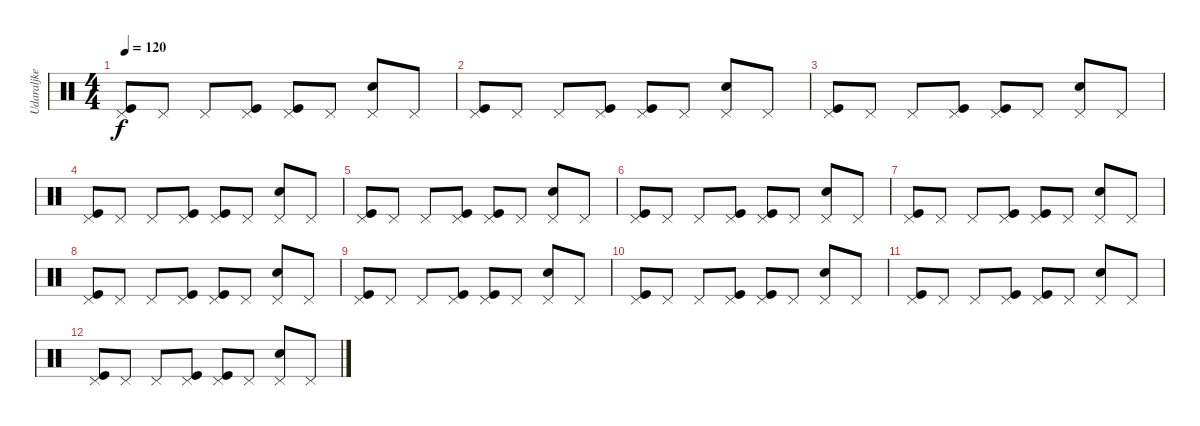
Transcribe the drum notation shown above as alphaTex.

\track ("Udaraljke" "Udaraljke") {instrument percussion}
\staff {score}
\articulation defaults
\ts (4 4)
\tempo 120
\clef neutral
\ks c
("Pedal Hi-Hat (hit)" "Kick (hit)").8{dy f} "Pedal Hi-Hat (hit)".8 "Pedal Hi-Hat (hit)".8 ("Pedal Hi-Hat (hit)" "Kick (hit)").8 ("Pedal Hi-Hat (hit)" "Kick (hit)").8 "Pedal Hi-Hat (hit)".8 ("Pedal Hi-Hat (hit)" "Snare (hit) 2").8 "Pedal Hi-Hat (hit)".8 |
("Pedal Hi-Hat (hit)" "Kick (hit)").8 "Pedal Hi-Hat (hit)".8 "Pedal Hi-Hat (hit)".8 ("Pedal Hi-Hat (hit)" "Kick (hit)").8 ("Pedal Hi-Hat (hit)" "Kick (hit)").8 "Pedal Hi-Hat (hit)".8 ("Pedal Hi-Hat (hit)" "Snare (hit) 2").8 "Pedal Hi-Hat (hit)".8 |
("Pedal Hi-Hat (hit)" "Kick (hit)").8 "Pedal Hi-Hat (hit)".8 "Pedal Hi-Hat (hit)".8 ("Pedal Hi-Hat (hit)" "Kick (hit)").8 ("Pedal Hi-Hat (hit)" "Kick (hit)").8 "Pedal Hi-Hat (hit)".8 ("Pedal Hi-Hat (hit)" "Snare (hit) 2").8 "Pedal Hi-Hat (hit)".8 |
("Pedal Hi-Hat (hit)" "Kick (hit)").8 "Pedal Hi-Hat (hit)".8 "Pedal Hi-Hat (hit)".8 ("Pedal Hi-Hat (hit)" "Kick (hit)").8 ("Pedal Hi-Hat (hit)" "Kick (hit)").8 "Pedal Hi-Hat (hit)".8 ("Pedal Hi-Hat (hit)" "Snare (hit) 2").8 "Pedal Hi-Hat (hit)".8 |
("Pedal Hi-Hat (hit)" "Kick (hit)").8 "Pedal Hi-Hat (hit)".8 "Pedal Hi-Hat (hit)".8 ("Pedal Hi-Hat (hit)" "Kick (hit)").8 ("Pedal Hi-Hat (hit)" "Kick (hit)").8 "Pedal Hi-Hat (hit)".8 ("Pedal Hi-Hat (hit)" "Snare (hit) 2").8 "Pedal Hi-Hat (hit)".8 |
("Pedal Hi-Hat (hit)" "Kick (hit)").8 "Pedal Hi-Hat (hit)".8 "Pedal Hi-Hat (hit)".8 ("Pedal Hi-Hat (hit)" "Kick (hit)").8 ("Pedal Hi-Hat (hit)" "Kick (hit)").8 "Pedal Hi-Hat (hit)".8 ("Pedal Hi-Hat (hit)" "Snare (hit) 2").8 "Pedal Hi-Hat (hit)".8 |
("Pedal Hi-Hat (hit)" "Kick (hit)").8 "Pedal Hi-Hat (hit)".8 "Pedal Hi-Hat (hit)".8 ("Pedal Hi-Hat (hit)" "Kick (hit)").8 ("Pedal Hi-Hat (hit)" "Kick (hit)").8 "Pedal Hi-Hat (hit)".8 ("Pedal Hi-Hat (hit)" "Snare (hit) 2").8 "Pedal Hi-Hat (hit)".8 |
("Pedal Hi-Hat (hit)" "Kick (hit)").8 "Pedal Hi-Hat (hit)".8 "Pedal Hi-Hat (hit)".8 ("Pedal Hi-Hat (hit)" "Kick (hit)").8 ("Pedal Hi-Hat (hit)" "Kick (hit)").8 "Pedal Hi-Hat (hit)".8 ("Pedal Hi-Hat (hit)" "Snare (hit) 2").8 "Pedal Hi-Hat (hit)".8 |
("Pedal Hi-Hat (hit)" "Kick (hit)").8 "Pedal Hi-Hat (hit)".8 "Pedal Hi-Hat (hit)".8 ("Pedal Hi-Hat (hit)" "Kick (hit)").8 ("Pedal Hi-Hat (hit)" "Kick (hit)").8 "Pedal Hi-Hat (hit)".8 ("Pedal Hi-Hat (hit)" "Snare (hit) 2").8 "Pedal Hi-Hat (hit)".8 |
("Pedal Hi-Hat (hit)" "Kick (hit)").8 "Pedal Hi-Hat (hit)".8 "Pedal Hi-Hat (hit)".8 ("Pedal Hi-Hat (hit)" "Kick (hit)").8 ("Pedal Hi-Hat (hit)" "Kick (hit)").8 "Pedal Hi-Hat (hit)".8 ("Pedal Hi-Hat (hit)" "Snare (hit) 2").8 "Pedal Hi-Hat (hit)".8 |
("Pedal Hi-Hat (hit)" "Kick (hit)").8 "Pedal Hi-Hat (hit)".8 "Pedal Hi-Hat (hit)".8 ("Pedal Hi-Hat (hit)" "Kick (hit)").8 ("Pedal Hi-Hat (hit)" "Kick (hit)").8 "Pedal Hi-Hat (hit)".8 ("Pedal Hi-Hat (hit)" "Snare (hit) 2").8 "Pedal Hi-Hat (hit)".8 |
("Pedal Hi-Hat (hit)" "Kick (hit)").8 "Pedal Hi-Hat (hit)".8 "Pedal Hi-Hat (hit)".8 ("Pedal Hi-Hat (hit)" "Kick (hit)").8 ("Pedal Hi-Hat (hit)" "Kick (hit)").8 "Pedal Hi-Hat (hit)".8 ("Pedal Hi-Hat (hit)" "Snare (hit) 2").8 "Pedal Hi-Hat (hit)".8
